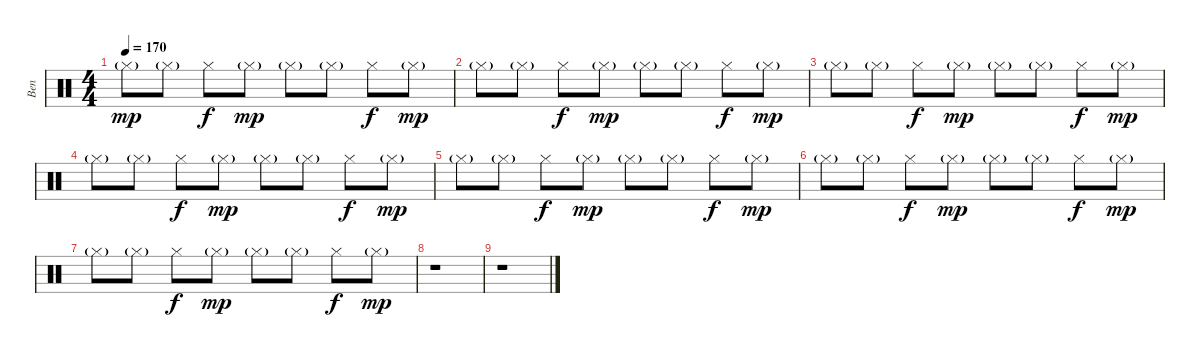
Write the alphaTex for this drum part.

\track ("Ben" "Ben") {instrument percussion}
\staff {score}
\articulation defaults
\ts (4 4)
\tempo 170
\clef neutral
\ks c "Hi-Hat (closed)"{g}.8{dy mp} "Hi-Hat (closed)"{g}.8 "Hi-Hat (closed)".8{dy f} "Hi-Hat (closed)"{g}.8{dy mp} "Hi-Hat (closed)"{g}.8 "Hi-Hat (closed)"{g}.8 "Hi-Hat (closed)".8{dy f} "Hi-Hat (closed)"{g}.8{dy mp}
|
"Hi-Hat (closed)"{g}.8 "Hi-Hat (closed)"{g}.8 "Hi-Hat (closed)".8{dy f} "Hi-Hat (closed)"{g}.8{dy mp} "Hi-Hat (closed)"{g}.8 "Hi-Hat (closed)"{g}.8 "Hi-Hat (closed)".8{dy f} "Hi-Hat (closed)"{g}.8{dy mp} |
"Hi-Hat (closed)"{g}.8 "Hi-Hat (closed)"{g}.8 "Hi-Hat (closed)".8{dy f} "Hi-Hat (closed)"{g}.8{dy mp} "Hi-Hat (closed)"{g}.8 "Hi-Hat (closed)"{g}.8 "Hi-Hat (closed)".8{dy f} "Hi-Hat (closed)"{g}.8{dy mp} |
"Hi-Hat (closed)"{g}.8 "Hi-Hat (closed)"{g}.8 "Hi-Hat (closed)".8{dy f} "Hi-Hat (closed)"{g}.8{dy mp} "Hi-Hat (closed)"{g}.8 "Hi-Hat (closed)"{g}.8 "Hi-Hat (closed)".8{dy f} "Hi-Hat (closed)"{g}.8{dy mp} |
"Hi-Hat (closed)"{g}.8{volume 0} "Hi-Hat (closed)"{g}.8 "Hi-Hat (closed)".8{dy f} "Hi-Hat (closed)"{g}.8{dy mp} "Hi-Hat (closed)"{g}.8 "Hi-Hat (closed)"{g}.8 "Hi-Hat (closed)".8{dy f} "Hi-Hat (closed)"{g}.8{dy mp} |
"Hi-Hat (closed)"{g}.8 "Hi-Hat (closed)"{g}.8 "Hi-Hat (closed)".8{dy f} "Hi-Hat (closed)"{g}.8{dy mp} "Hi-Hat (closed)"{g}.8 "Hi-Hat (closed)"{g}.8 "Hi-Hat (closed)".8{dy f} "Hi-Hat (closed)"{g}.8{dy mp} |
"Hi-Hat (closed)"{g}.8 "Hi-Hat (closed)"{g}.8 "Hi-Hat (closed)".8{dy f} "Hi-Hat (closed)"{g}.8{dy mp} "Hi-Hat (closed)"{g}.8 "Hi-Hat (closed)"{g}.8 "Hi-Hat (closed)".8{dy f} "Hi-Hat (closed)"{g}.8{dy mp} |
r.1 |
r.1
